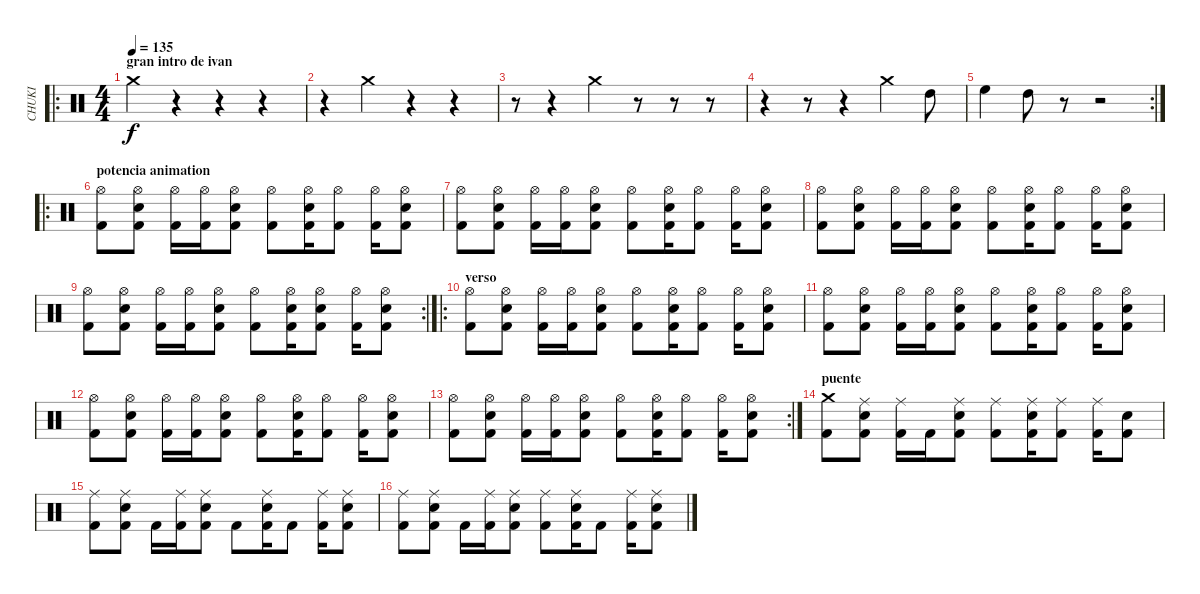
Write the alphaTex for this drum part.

\track ("CHUKI" "CHUKI") {instrument percussion}
\staff {score}
\articulation defaults
\ro
\ts (4 4)
\section ("" "gran intro de ivan")
\tempo 135
\clef neutral
\ks c "Crash medium (hit)".4{dy f}
r.4 r.4 r.4 |
r.4 "Crash medium (hit)".4 r.4 r.4 |
r.8 r.4 "Crash medium (hit)".4 r.8 r.8 r.8 |
r.4 r.8 r.4 "Crash medium (hit)".4 "High Tom (hit)".8 |
\rc 2 "High Floor Tom (hit)".4 "High Tom (hit)".8
r.8 r.2 |
\ro
\section ("" "potencia animation")
("Kick (hit) 2" "Hi-Hat (open)").8 ("Kick (hit) 2" "Snare (hit) 2" "Hi-Hat (open)").8 ("Kick (hit) 2" "Hi-Hat (open)").16 ("Kick (hit) 2" "Hi-Hat (open)").16 ("Kick (hit) 2" "Snare (hit) 2" "Hi-Hat (open)").8 ("Kick (hit) 2" "Hi-Hat (open)").8 ("Kick (hit) 2" "Snare (hit) 2" "Hi-Hat (open)").16 ("Kick (hit) 2" "Hi-Hat (open)").8 ("Kick (hit) 2" "Hi-Hat (open)").16 ("Kick (hit) 2" "Snare (hit) 2" "Hi-Hat (open)").8 |
("Kick (hit) 2" "Hi-Hat (open)").8 ("Kick (hit) 2" "Snare (hit) 2" "Hi-Hat (open)").8 ("Kick (hit) 2" "Hi-Hat (open)").16 ("Kick (hit) 2" "Hi-Hat (open)").16 ("Kick (hit) 2" "Snare (hit) 2" "Hi-Hat (open)").8 ("Kick (hit) 2" "Hi-Hat (open)").8 ("Kick (hit) 2" "Snare (hit) 2" "Hi-Hat (open)").16 ("Kick (hit) 2" "Hi-Hat (open)").8 ("Kick (hit) 2" "Hi-Hat (open)").16 ("Kick (hit) 2" "Snare (hit) 2" "Hi-Hat (open)").8 |
("Kick (hit) 2" "Hi-Hat (open)").8 ("Kick (hit) 2" "Snare (hit) 2" "Hi-Hat (open)").8 ("Kick (hit) 2" "Hi-Hat (open)").16 ("Kick (hit) 2" "Hi-Hat (open)").16 ("Kick (hit) 2" "Snare (hit) 2" "Hi-Hat (open)").8 ("Kick (hit) 2" "Hi-Hat (open)").8 ("Kick (hit) 2" "Snare (hit) 2" "Hi-Hat (open)").16 ("Kick (hit) 2" "Hi-Hat (open)").8 ("Kick (hit) 2" "Hi-Hat (open)").16 ("Kick (hit) 2" "Snare (hit) 2" "Hi-Hat (open)").8 |
\rc 2
("Kick (hit) 2" "Hi-Hat (open)").8 ("Kick (hit) 2" "Snare (hit) 2" "Hi-Hat (open)").8 ("Kick (hit) 2" "Hi-Hat (open)").16 ("Kick (hit) 2" "Hi-Hat (open)").16 ("Kick (hit) 2" "Snare (hit) 2" "Hi-Hat (open)").8 ("Kick (hit) 2" "Hi-Hat (open)").8 ("Kick (hit) 2" "Snare (hit) 2" "Hi-Hat (open)").16 ("Kick (hit) 2" "Snare (hit) 2" "Hi-Hat (open)").8 ("Kick (hit) 2" "Hi-Hat (open)").16 ("Kick (hit) 2" "Snare (hit) 2" "Hi-Hat (open)").8 |
\ro
\section ("" "verso")
("Kick (hit) 2" "Hi-Hat (open)").8 ("Kick (hit) 2" "Snare (hit) 2" "Hi-Hat (open)").8 ("Kick (hit) 2" "Hi-Hat (open)").16 ("Kick (hit) 2" "Hi-Hat (open)").16 ("Kick (hit) 2" "Snare (hit) 2" "Hi-Hat (open)").8 ("Kick (hit) 2" "Hi-Hat (open)").8 ("Kick (hit) 2" "Snare (hit) 2" "Hi-Hat (open)").16 ("Kick (hit) 2" "Hi-Hat (open)").8 ("Kick (hit) 2" "Hi-Hat (open)").16 ("Kick (hit) 2" "Snare (hit) 2" "Hi-Hat (open)").8 |
("Kick (hit) 2" "Hi-Hat (open)").8 ("Kick (hit) 2" "Snare (hit) 2" "Hi-Hat (open)").8 ("Kick (hit) 2" "Hi-Hat (open)").16 ("Kick (hit) 2" "Hi-Hat (open)").16 ("Kick (hit) 2" "Snare (hit) 2" "Hi-Hat (open)").8 ("Kick (hit) 2" "Hi-Hat (open)").8 ("Kick (hit) 2" "Snare (hit) 2" "Hi-Hat (open)").16 ("Kick (hit) 2" "Hi-Hat (open)").8 ("Kick (hit) 2" "Hi-Hat (open)").16 ("Kick (hit) 2" "Snare (hit) 2" "Hi-Hat (open)").8 |
("Kick (hit) 2" "Hi-Hat (open)").8 ("Kick (hit) 2" "Snare (hit) 2" "Hi-Hat (open)").8 ("Kick (hit) 2" "Hi-Hat (open)").16 ("Kick (hit) 2" "Hi-Hat (open)").16 ("Kick (hit) 2" "Snare (hit) 2" "Hi-Hat (open)").8 ("Kick (hit) 2" "Hi-Hat (open)").8 ("Kick (hit) 2" "Snare (hit) 2" "Hi-Hat (open)").16 ("Kick (hit) 2" "Hi-Hat (open)").8 ("Kick (hit) 2" "Hi-Hat (open)").16 ("Kick (hit) 2" "Snare (hit) 2" "Hi-Hat (open)").8 |
\rc 2
("Kick (hit) 2" "Hi-Hat (open)").8 ("Kick (hit) 2" "Snare (hit) 2" "Hi-Hat (open)").8 ("Kick (hit) 2" "Hi-Hat (open)").16 ("Kick (hit) 2" "Hi-Hat (open)").16 ("Kick (hit) 2" "Snare (hit) 2" "Hi-Hat (open)").8 ("Kick (hit) 2" "Hi-Hat (open)").8 ("Kick (hit) 2" "Snare (hit) 2" "Hi-Hat (open)").16 ("Kick (hit) 2" "Hi-Hat (open)").8 ("Kick (hit) 2" "Hi-Hat (open)").16 ("Kick (hit) 2" "Snare (hit) 2" "Hi-Hat (open)").8 |
\section ("" "puente")
("Kick (hit) 2" "Crash medium (hit)").8 ("Kick (hit) 2" "Ride (middle)" "Snare (hit) 2").8 ("Kick (hit) 2" "Ride (middle)").16 "Kick (hit) 2".16 ("Kick (hit) 2" "Ride (middle)" "Snare (hit) 2").8 ("Kick (hit) 2" "Ride (middle)").8 ("Kick (hit) 2" "Ride (middle)" "Snare (hit) 2").16 ("Kick (hit) 2" "Ride (middle)").8 ("Kick (hit) 2" "Ride (middle)").16 ("Kick (hit) 2" "Snare (hit) 2").8 |
("Kick (hit) 2" "Ride (middle)").8 ("Kick (hit) 2" "Snare (hit) 2" "Ride (middle)").8 "Kick (hit) 2".16 ("Kick (hit) 2" "Ride (middle)").16 ("Kick (hit) 2" "Snare (hit) 2" "Ride (middle)").8 "Kick (hit) 2".8 ("Kick (hit) 2" "Snare (hit) 2" "Ride (middle)").16 "Kick (hit) 2".8 ("Kick (hit) 2" "Ride (middle)").16 ("Kick (hit) 2" "Snare (hit) 2" "Ride (middle)").8 |
("Kick (hit) 2" "Ride (middle)").8 ("Kick (hit) 2" "Ride (middle)" "Snare (hit) 2").8 "Kick (hit) 2".16 ("Kick (hit) 2" "Ride (middle)").16 ("Kick (hit) 2" "Ride (middle)" "Snare (hit) 2").8 ("Kick (hit) 2" "Ride (middle)").8 ("Kick (hit) 2" "Ride (middle)" "Snare (hit) 2").16 "Kick (hit) 2".8 ("Kick (hit) 2" "Ride (middle)").16 ("Kick (hit) 2" "Ride (middle)" "Snare (hit) 2").8
